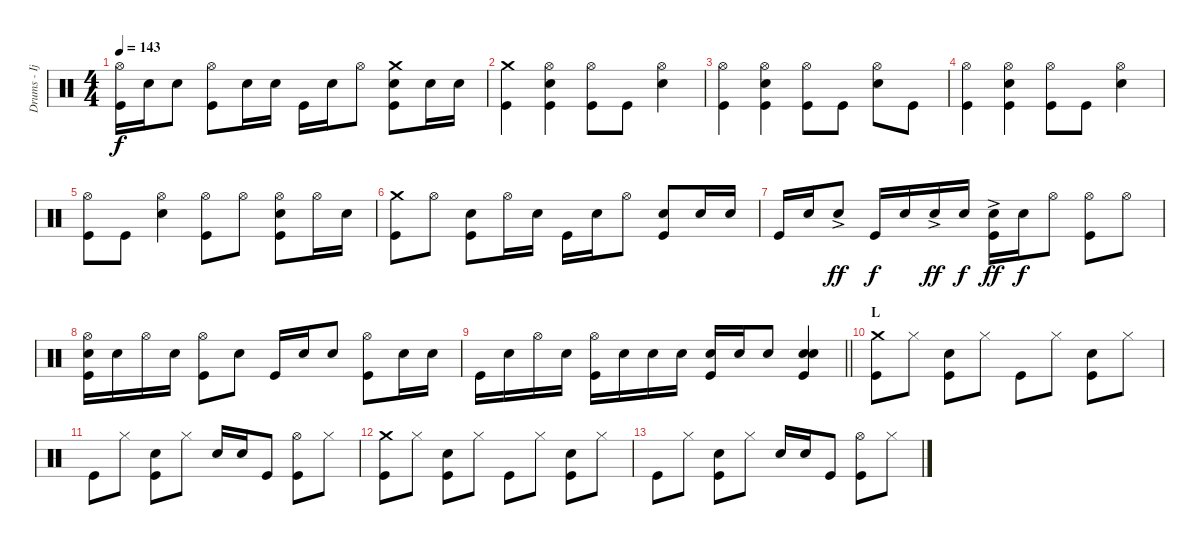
\track ("Drums - Ijichi" "Drums - Ij") {instrument percussion}
\staff {score}
\articulation defaults
\ts (4 4)
\tempo 143
\clef neutral
\ks c
("Hi-Hat (open)" "Kick (hit)").16{dy f} "Electric Snare (hit)".16 "Electric Snare (hit)".8 ("Hi-Hat (open)" "Kick (hit)").8 "Electric Snare (hit)".16 "Electric Snare (hit)".16 "Kick (hit)".16 "Electric Snare (hit)".16 "Hi-Hat (open)".8 ("Crash medium (hit)" "Electric Snare (hit)" "Kick (hit)").8 "Electric Snare (hit)".16 "Electric Snare (hit)".16 |
("Crash medium (hit)" "Kick (hit)").4 ("Hi-Hat (open)" "Electric Snare (hit)" "Kick (hit)").4 ("Hi-Hat (open)" "Kick (hit)").8 "Kick (hit)".8 ("Hi-Hat (open)" "Electric Snare (hit)").4 |
("Hi-Hat (open)" "Kick (hit)").4 ("Hi-Hat (open)" "Electric Snare (hit)" "Kick (hit)").4 ("Hi-Hat (open)" "Kick (hit)").8 "Kick (hit)".8 ("Hi-Hat (open)" "Electric Snare (hit)").8 "Kick (hit)".8 |
("Hi-Hat (open)" "Kick (hit)").4 ("Hi-Hat (open)" "Electric Snare (hit)" "Kick (hit)").4 ("Hi-Hat (open)" "Kick (hit)").8 "Kick (hit)".8 ("Hi-Hat (open)" "Electric Snare (hit)").4 |
("Hi-Hat (open)" "Kick (hit)").8 "Kick (hit)".8 ("Hi-Hat (open)" "Electric Snare (hit)").4 ("Hi-Hat (open)" "Kick (hit)").8 "Hi-Hat (open)".8 ("Hi-Hat (open)" "Electric Snare (hit)" "Kick (hit)").8 "Hi-Hat (open)".16 "Electric Snare (hit)".16 |
("Crash medium (hit)" "Kick (hit)").8 "Hi-Hat (open)".8 ("Electric Snare (hit)" "Kick (hit)").8 "Hi-Hat (open)".16 "Electric Snare (hit)".16 "Kick (hit)".16 "Electric Snare (hit)".16 "Hi-Hat (open)".8 ("Electric Snare (hit)" "Kick (hit)").8 "Electric Snare (hit)".16 "Electric Snare (hit)".16 |
"Kick (hit)".16 "Electric Snare (hit)".16 "Electric Snare (hit)"{ac}.8{dy ff} "Kick (hit)".16{dy f} "Electric Snare (hit)".16 "Electric Snare (hit)"{ac}.16{dy ff} "Electric Snare (hit)".16{dy f} ("Electric Snare (hit)"{ac} "Kick (hit)").16{dy ff} "Electric Snare (hit)".16{dy f} "Hi-Hat (open)".8 ("Hi-Hat (open)" "Kick (hit)").8 "Hi-Hat (open)".8 |
("Hi-Hat (open)" "Electric Snare (hit)" "Kick (hit)").16 "Electric Snare (hit)".16 "Hi-Hat (open)".16 "Electric Snare (hit)".16 ("Hi-Hat (open)" "Kick (hit)").8 "Electric Snare (hit)".8 "Kick (hit)".16 "Electric Snare (hit)".16 "Electric Snare (hit)".8 ("Hi-Hat (open)" "Kick (hit)").8 "Electric Snare (hit)".16 "Electric Snare (hit)".16 |
\barLineRight lightlight "Kick (hit)".16 "Electric Snare (hit)".16 "Hi-Hat (open)".16 "Electric Snare (hit)".16
("Hi-Hat (open)" "Kick (hit)").16 "Electric Snare (hit)".16 "Electric Snare (hit)".16 "Electric Snare (hit)".16 ("Electric Snare (hit)" "Kick (hit)").16 "Electric Snare (hit)".16 "Electric Snare (hit)".8 ("Electric Snare (hit)" "Electric Snare (hit)" "Kick (hit)").4 |
\section ("" "L")
("Crash medium (hit)" "Kick (hit)").8 "Hi-Hat (closed)".8 ("Electric Snare (hit)" "Kick (hit)").8 "Hi-Hat (closed)".8 "Kick (hit)".8 "Hi-Hat (closed)".8 ("Electric Snare (hit)" "Kick (hit)").8 "Hi-Hat (closed)".8 |
"Kick (hit)".8 "Hi-Hat (closed)".8 ("Electric Snare (hit)" "Kick (hit)").8 "Hi-Hat (closed)".8 "Electric Snare (hit)".16 "Electric Snare (hit)".16 "Kick (hit)".8 ("Hi-Hat (open)" "Kick (hit)").8 "Hi-Hat (closed)".8 |
("Crash medium (hit)" "Kick (hit)").8 "Hi-Hat (closed)".8 ("Electric Snare (hit)" "Kick (hit)").8 "Hi-Hat (closed)".8 "Kick (hit)".8 "Hi-Hat (closed)".8 ("Electric Snare (hit)" "Kick (hit)").8 "Hi-Hat (closed)".8 |
"Kick (hit)".8 "Hi-Hat (closed)".8 ("Electric Snare (hit)" "Kick (hit)").8 "Hi-Hat (closed)".8 "Electric Snare (hit)".16 "Electric Snare (hit)".16 "Kick (hit)".8 ("Hi-Hat (open)" "Kick (hit)").8 "Hi-Hat (closed)".8
